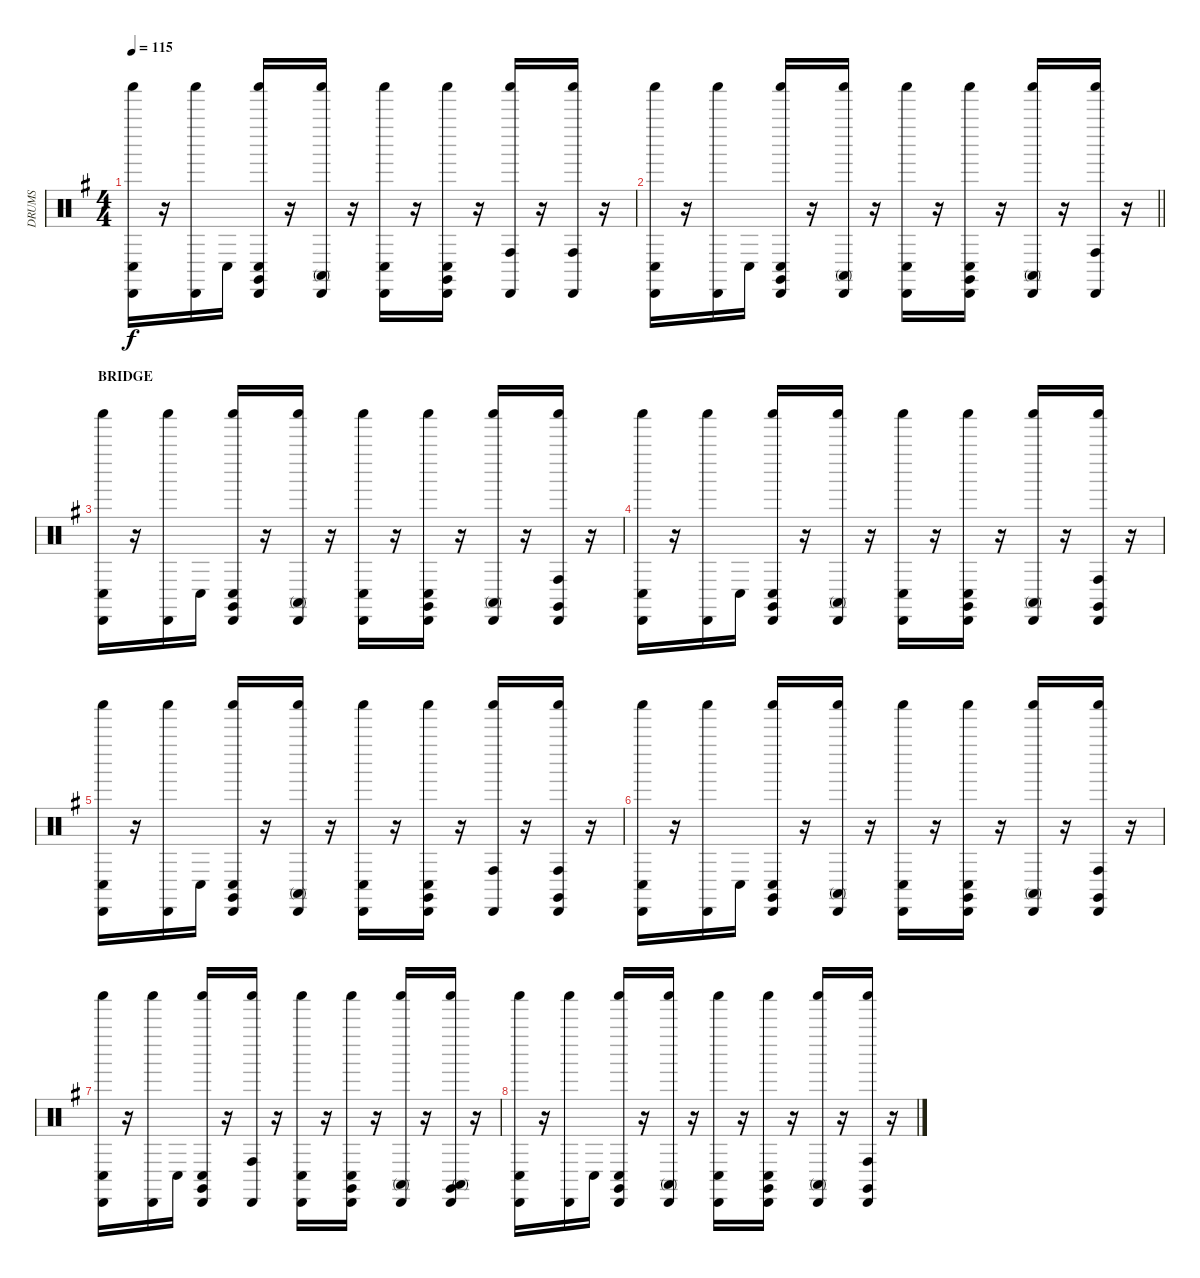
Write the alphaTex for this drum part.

\track ("DRUMS" "DRUMS") {instrument percussion}
\staff {score}
\articulation defaults
\ts (4 4)
\tempo 115
\clef neutral
\ks eminor
("Conga low (hit)" "Cabasa (hit)" "Shaker (hit)").16{dy f} r.16 ("Shaker (hit)" "Cabasa (hit)").16 "Conga low (hit)".16 ("Shaker (hit)" "Conga low (hit)" "Cabasa (hit)" "Claves (hit)").16 r.16 ("Cabasa (hit)" "Conga high (mute)" "Shaker (hit)").16 r.16 ("Shaker (hit)" "Cabasa (hit)" "Conga low (hit)").16 r.16 ("Claves (hit)" "Cabasa (hit)" "Conga low (hit)" "Shaker (hit)").16 r.16 ("Cabasa (hit)" "Conga high (hit)" "Shaker (hit)").16 r.16 ("Cabasa (hit)" "Shaker (hit)" "Conga high (hit)").16 r.16 |
\barLineRight lightlight
("Shaker (hit)" "Conga low (hit)" "Cabasa (hit)").16 r.16 ("Cabasa (hit)" "Shaker (hit)").16 "Conga low (hit)".16 ("Cabasa (hit)" "Conga low (hit)" "Shaker (hit)" "Claves (hit)").16 r.16 ("Cabasa (hit)" "Shaker (hit)" "Conga high (mute)").16 r.16 ("Cabasa (hit)" "Shaker (hit)" "Conga low (hit)").16 r.16 ("Conga low (hit)" "Claves (hit)" "Shaker (hit)" "Cabasa (hit)").16 r.16 ("Cabasa (hit)" "Conga high (mute)" "Shaker (hit)").16 r.16 ("Shaker (hit)" "Conga high (hit)" "Cabasa (hit)").16 r.16 |
\section ("" "BRIDGE")
("Cabasa (hit)" "Conga low (hit)" "Shaker (hit)").16 r.16 ("Cabasa (hit)" "Shaker (hit)").16 "Conga low (hit)".16 ("Conga low (hit)" "Cabasa (hit)" "Shaker (hit)" "Claves (hit)").16 r.16 ("Shaker (hit)" "Conga high (mute)" "Cabasa (hit)").16 r.16 ("Shaker (hit)" "Conga low (hit)" "Cabasa (hit)").16 r.16 ("Cabasa (hit)" "Shaker (hit)" "Claves (hit)" "Conga low (hit)").16 r.16 ("Shaker (hit)" "Cabasa (hit)" "Conga high (mute)").16 r.16 ("Claves (hit)" "Conga high (hit)" "Cabasa (hit)" "Shaker (hit)").16 r.16 |
("Cabasa (hit)" "Shaker (hit)" "Conga low (hit)").16 r.16 ("Shaker (hit)" "Cabasa (hit)").16 "Conga low (hit)".16 ("Conga low (hit)" "Claves (hit)" "Cabasa (hit)" "Shaker (hit)").16 r.16 ("Conga high (mute)" "Shaker (hit)" "Cabasa (hit)").16 r.16 ("Shaker (hit)" "Cabasa (hit)" "Conga low (hit)").16 r.16 ("Shaker (hit)" "Conga low (hit)" "Claves (hit)" "Cabasa (hit)").16 r.16 ("Cabasa (hit)" "Shaker (hit)" "Conga high (mute)").16 r.16 ("Conga high (hit)" "Cabasa (hit)" "Claves (hit)" "Shaker (hit)").16 r.16 |
("Conga low (hit)" "Cabasa (hit)" "Shaker (hit)").16 r.16 ("Cabasa (hit)" "Shaker (hit)").16 "Conga low (hit)".16 ("Shaker (hit)" "Conga low (hit)" "Claves (hit)" "Cabasa (hit)").16 r.16 ("Cabasa (hit)" "Shaker (hit)" "Conga high (mute)").16 r.16 ("Conga low (hit)" "Shaker (hit)" "Cabasa (hit)").16 r.16 ("Shaker (hit)" "Cabasa (hit)" "Conga low (hit)" "Claves (hit)").16 r.16 ("Conga high (hit)" "Cabasa (hit)" "Shaker (hit)").16 r.16 ("Claves (hit)" "Conga high (hit)" "Shaker (hit)" "Cabasa (hit)").16 r.16 |
("Cabasa (hit)" "Conga low (hit)" "Shaker (hit)").16 r.16 ("Cabasa (hit)" "Shaker (hit)").16 "Conga low (hit)".16 ("Conga low (hit)" "Shaker (hit)" "Cabasa (hit)" "Claves (hit)").16 r.16 ("Conga high (mute)" "Shaker (hit)" "Cabasa (hit)").16 r.16 ("Shaker (hit)" "Cabasa (hit)" "Conga low (hit)").16 r.16 ("Conga low (hit)" "Shaker (hit)" "Claves (hit)" "Cabasa (hit)").16 r.16 ("Conga high (mute)" "Cabasa (hit)" "Shaker (hit)").16 r.16 ("Claves (hit)" "Conga high (hit)" "Cabasa (hit)" "Shaker (hit)").16 r.16 |
("Shaker (hit)" "Cabasa (hit)" "Conga low (hit)").16 r.16 ("Cabasa (hit)" "Shaker (hit)").16 "Conga low (hit)".16 ("Shaker (hit)" "Cabasa (hit)" "Claves (hit)" "Conga low (hit)").16 r.16 ("Shaker (hit)" "Cabasa (hit)" "Conga high (hit)").16 r.16 ("Conga low (hit)" "Cabasa (hit)" "Shaker (hit)").16 r.16 ("Claves (hit)" "Conga low (hit)" "Cabasa (hit)" "Shaker (hit)").16 r.16 ("Conga high (mute)" "Shaker (hit)" "Cabasa (hit)").16 r.16 ("Conga high (mute)" "Cabasa (hit)" "Claves (hit)" "Shaker (hit)").16 r.16 |
("Cabasa (hit)" "Conga low (hit)" "Shaker (hit)").16 r.16 ("Cabasa (hit)" "Shaker (hit)").16 "Conga low (hit)".16 ("Shaker (hit)" "Cabasa (hit)" "Conga low (hit)" "Claves (hit)").16 r.16 ("Cabasa (hit)" "Conga high (mute)" "Shaker (hit)").16 r.16 ("Conga low (hit)" "Shaker (hit)" "Cabasa (hit)").16 r.16 ("Shaker (hit)" "Claves (hit)" "Cabasa (hit)" "Conga low (hit)").16 r.16 ("Conga high (mute)" "Cabasa (hit)" "Shaker (hit)").16 r.16 ("Claves (hit)" "Shaker (hit)" "Conga high (hit)" "Cabasa (hit)").16 r.16
